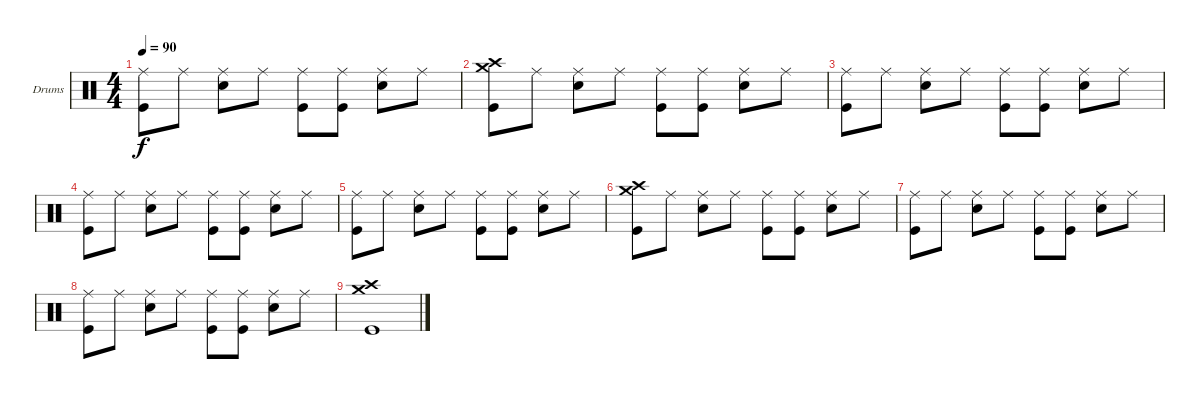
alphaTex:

\defaultSystemsLayout 4
\bracketExtendMode groupsimilarinstruments
\firstSystemTrackNameOrientation horizontal
\otherSystemsTrackNameOrientation horizontal
\track ("Drumkit" "Drums") {instrument percussion}
\staff {score}
\articulation defaults
\ts (4 4)
\tempo 90
\clef neutral
\scale
0.333333
\ks c
("Kick (hit)" "Ride (middle)").8{dy f} "Ride (middle)".8 ("Snare (hit) 2" "Ride (middle)").8 "Ride (middle)".8 ("Kick (hit)" "Ride (middle)").8 ("Kick (hit)" "Ride (middle)").8 ("Snare (hit) 2" "Ride (middle)").8 "Ride (middle)".8 |
\scale
0.333333 ("Kick (hit)" "Crash high (hit)" "Crash medium (hit)").8 "Ride (middle)".8 ("Snare (hit) 2" "Ride (middle)").8 "Ride (middle)".8 ("Kick (hit)" "Ride (middle)").8 ("Kick (hit)" "Ride (middle)").8 ("Snare (hit) 2" "Ride (middle)").8 "Ride (middle)".8 |
\scale
0.333333 ("Kick (hit)" "Ride (middle)").8 "Ride (middle)".8 ("Snare (hit) 2" "Ride (middle)").8 "Ride (middle)".8 ("Kick (hit)" "Ride (middle)").8 ("Kick (hit)" "Ride (middle)").8 ("Snare (hit) 2" "Ride (middle)").8 "Ride (middle)".8 |
\scale
0.333333 ("Kick (hit)" "Ride (middle)").8 "Ride (middle)".8 ("Snare (hit) 2" "Ride (middle)").8 "Ride (middle)".8 ("Kick (hit)" "Ride (middle)").8 ("Kick (hit)" "Ride (middle)").8 ("Snare (hit) 2" "Ride (middle)").8 "Ride (middle)".8 |
\scale
0.333333 ("Kick (hit)" "Ride (middle)").8 "Ride (middle)".8 ("Snare (hit) 2" "Ride (middle)").8 "Ride (middle)".8 ("Kick (hit)" "Ride (middle)").8 ("Kick (hit)" "Ride (middle)").8 ("Snare (hit) 2" "Ride (middle)").8 "Ride (middle)".8 |
\scale
0.333333 ("Kick (hit)" "Crash high (hit)" "Crash medium (hit)").8 "Ride (middle)".8 ("Snare (hit) 2" "Ride (middle)").8 "Ride (middle)".8 ("Kick (hit)" "Ride (middle)").8 ("Kick (hit)" "Ride (middle)").8 ("Snare (hit) 2" "Ride (middle)").8 "Ride (middle)".8 |
\scale
0.333333 ("Kick (hit)" "Ride (middle)").8 "Ride (middle)".8 ("Snare (hit) 2" "Ride (middle)").8 "Ride (middle)".8 ("Kick (hit)" "Ride (middle)").8 ("Kick (hit)" "Ride (middle)").8 ("Snare (hit) 2" "Ride (middle)").8 "Ride (middle)".8 |
\scale
0.333333 ("Kick (hit)" "Ride (middle)").8 "Ride (middle)".8 ("Snare (hit) 2" "Ride (middle)").8 "Ride (middle)".8 ("Kick (hit)" "Ride (middle)").8 ("Kick (hit)" "Ride (middle)").8 ("Snare (hit) 2" "Ride (middle)").8 "Ride (middle)".8 |
\scale
0.333333 ("Kick (hit)" "Crash high (hit)" "Crash medium (hit)").1 |
\scale
0.333333 |
\scale
0.333333
